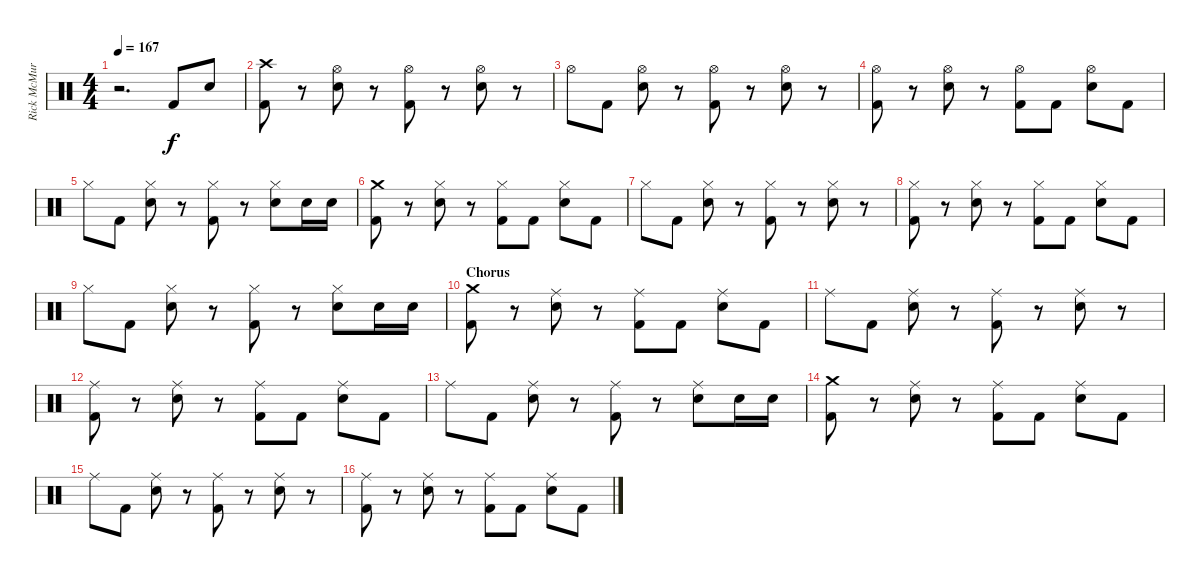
\track ("Rick McMurray" "Rick McMur") {instrument percussion}
\staff {score}
\articulation defaults
\ts (4 4)
\tempo 167
\clef neutral
\ks c
r.2{d dy f} "Kick (hit) 2".8 "Electric Snare (hit)".8 |
("Crash high (hit)" "Kick (hit) 2").8 r.8 ("Hi-Hat (open)" "Electric Snare (hit)").8 r.8 ("Hi-Hat (open)" "Kick (hit) 2").8 r.8 ("Hi-Hat (open)" "Electric Snare (hit)").8 r.8 |
"Hi-Hat (open)".8 "Kick (hit) 2".8 ("Hi-Hat (open)" "Electric Snare (hit)").8 r.8 ("Hi-Hat (open)" "Kick (hit) 2").8 r.8 ("Hi-Hat (open)" "Electric Snare (hit)").8 r.8 |
("Hi-Hat (open)" "Kick (hit) 2").8 r.8 ("Hi-Hat (open)" "Electric Snare (hit)").8 r.8 ("Hi-Hat (open)" "Kick (hit) 2").8 "Kick (hit) 2".8 ("Hi-Hat (open)" "Electric Snare (hit)").8 "Kick (hit) 2".8 |
"Hi-Hat (closed)".8 "Kick (hit) 2".8 ("Hi-Hat (closed)" "Electric Snare (hit)").8 r.8 ("Hi-Hat (closed)" "Kick (hit) 2").8 r.8 ("Hi-Hat (closed)" "Electric Snare (hit)").8 "Electric Snare (hit)".16 "Electric Snare (hit)".16 |
("Crash medium (hit)" "Kick (hit) 2").8 r.8 ("Hi-Hat (closed)" "Electric Snare (hit)").8 r.8 ("Hi-Hat (closed)" "Kick (hit) 2").8 "Kick (hit) 2".8 ("Hi-Hat (closed)" "Electric Snare (hit)").8 "Kick (hit) 2".8 |
"Hi-Hat (closed)".8 "Kick (hit) 2".8 ("Hi-Hat (closed)" "Electric Snare (hit)").8 r.8 ("Hi-Hat (closed)" "Kick (hit) 2").8 r.8 ("Hi-Hat (closed)" "Electric Snare (hit)").8 r.8 |
("Hi-Hat (closed)" "Kick (hit) 2").8 r.8 ("Hi-Hat (closed)" "Electric Snare (hit)").8 r.8 ("Hi-Hat (closed)" "Kick (hit) 2").8 "Kick (hit) 2".8 ("Hi-Hat (closed)" "Electric Snare (hit)").8 "Kick (hit) 2".8 |
"Hi-Hat (closed)".8 "Kick (hit) 2".8 ("Hi-Hat (closed)" "Electric Snare (hit)").8 r.8 ("Hi-Hat (closed)" "Kick (hit) 2").8 r.8 ("Hi-Hat (closed)" "Electric Snare (hit)").8 "Electric Snare (hit)".16 "Electric Snare (hit)".16 |
\section ("" "Chorus")
("Crash medium (hit)" "Kick (hit) 2").8 r.8 ("Ride (middle)" "Electric Snare (hit)").8 r.8 ("Ride (middle)" "Kick (hit) 2").8 "Kick (hit) 2".8 ("Ride (middle)" "Electric Snare (hit)").8 "Kick (hit) 2".8 |
"Ride (middle)".8 "Kick (hit) 2".8 ("Ride (middle)" "Electric Snare (hit)").8 r.8 ("Ride (middle)" "Kick (hit) 2").8 r.8 ("Ride (middle)" "Electric Snare (hit)").8 r.8 |
("Ride (middle)" "Kick (hit) 2").8 r.8 ("Ride (middle)" "Electric Snare (hit)").8 r.8 ("Ride (middle)" "Kick (hit) 2").8 "Kick (hit) 2".8 ("Ride (middle)" "Electric Snare (hit)").8 "Kick (hit) 2".8 |
"Ride (middle)".8 "Kick (hit) 2".8 ("Ride (middle)" "Electric Snare (hit)").8 r.8 ("Ride (middle)" "Kick (hit) 2").8 r.8 ("Ride (middle)" "Electric Snare (hit)").8 "Electric Snare (hit)".16 "Electric Snare (hit)".16 |
("Crash medium (hit)" "Kick (hit) 2").8 r.8 ("Ride (middle)" "Electric Snare (hit)").8 r.8 ("Ride (middle)" "Kick (hit) 2").8 "Kick (hit) 2".8 ("Ride (middle)" "Electric Snare (hit)").8 "Kick (hit) 2".8 |
"Ride (middle)".8 "Kick (hit) 2".8 ("Ride (middle)" "Electric Snare (hit)").8 r.8 ("Ride (middle)" "Kick (hit) 2").8 r.8 ("Ride (middle)" "Electric Snare (hit)").8 r.8 |
("Ride (middle)" "Kick (hit) 2").8 r.8 ("Ride (middle)" "Electric Snare (hit)").8 r.8 ("Ride (middle)" "Kick (hit) 2").8 "Kick (hit) 2".8 ("Ride (middle)" "Electric Snare (hit)").8 "Kick (hit) 2".8
